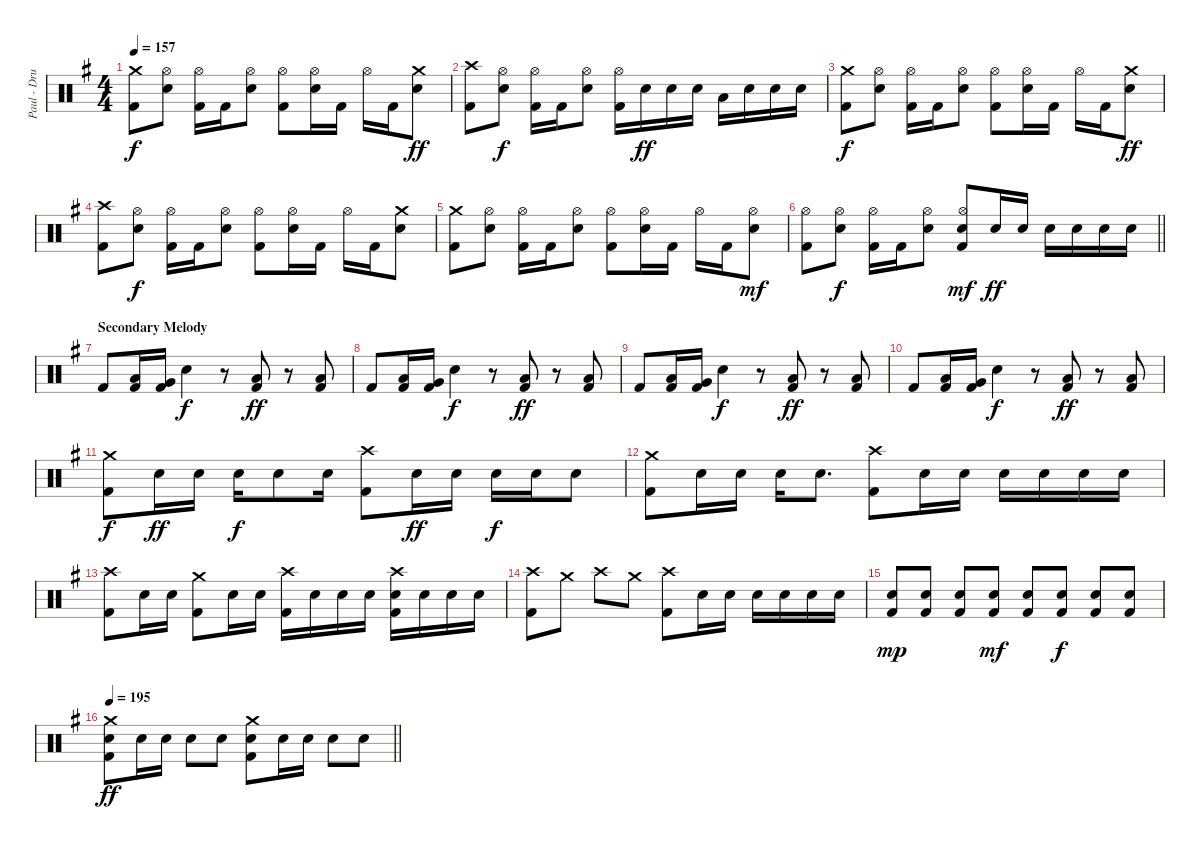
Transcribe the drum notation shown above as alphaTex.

\track ("Paul - Drums" "Paul - Dru") {instrument percussion}
\staff {score}
\articulation defaults
\ts (4 4)
\tempo 157
\clef neutral
\ks g
("Crash medium (hit)" "Kick (hit) 2").8{dy f} ("Hi-Hat (open)" "Electric Snare (hit)").8 ("Hi-Hat (open)" "Kick (hit) 2").16 "Kick (hit) 2".16 ("Hi-Hat (open)" "Electric Snare (hit)").8 ("Hi-Hat (open)" "Kick (hit) 2").8 ("Hi-Hat (open)" "Electric Snare (hit)").16 "Kick (hit) 2".16 "Hi-Hat (open)".16 "Kick (hit) 2".16 ("Crash medium (hit)" "Electric Snare (hit)").8{dy ff} |
("Crash high (hit)" "Kick (hit) 2").8 ("Hi-Hat (open)" "Electric Snare (hit)").8{dy f} ("Hi-Hat (open)" "Kick (hit) 2").16 "Kick (hit) 2".16 ("Hi-Hat (open)" "Electric Snare (hit)").8 ("Hi-Hat (open)" "Kick (hit) 2").16 "Electric Snare (hit)".16{dy ff} "Electric Snare (hit)".16 "Electric Snare (hit)".16 "Low Tom (hit)".16 "Electric Snare (hit)".16 "Electric Snare (hit)".16 "Electric Snare (hit)".16 |
("Crash medium (hit)" "Kick (hit) 2").8{dy f} ("Hi-Hat (open)" "Electric Snare (hit)").8 ("Hi-Hat (open)" "Kick (hit) 2").16 "Kick (hit) 2".16 ("Hi-Hat (open)" "Electric Snare (hit)").8 ("Hi-Hat (open)" "Kick (hit) 2").8 ("Hi-Hat (open)" "Electric Snare (hit)").16 "Kick (hit) 2".16 "Hi-Hat (open)".16 "Kick (hit) 2".16 ("Crash medium (hit)" "Electric Snare (hit)").8{dy ff} |
("Crash high (hit)" "Kick (hit) 2").8 ("Hi-Hat (open)" "Electric Snare (hit)").8{dy f} ("Hi-Hat (open)" "Kick (hit) 2").16 "Kick (hit) 2".16 ("Hi-Hat (open)" "Electric Snare (hit)").8 ("Hi-Hat (open)" "Kick (hit) 2").8 ("Hi-Hat (open)" "Electric Snare (hit)").16 "Kick (hit) 2".16 "Hi-Hat (open)".16 "Kick (hit) 2".16 ("Crash medium (hit)" "Electric Snare (hit)").8 |
("Crash medium (hit)" "Kick (hit) 2").8 ("Hi-Hat (open)" "Electric Snare (hit)").8 ("Hi-Hat (open)" "Kick (hit) 2").16 "Kick (hit) 2".16 ("Hi-Hat (open)" "Electric Snare (hit)").8 ("Hi-Hat (open)" "Kick (hit) 2").8 ("Hi-Hat (open)" "Electric Snare (hit)").16 "Kick (hit) 2".16 "Hi-Hat (open)".16 "Kick (hit) 2".16 ("Hi-Hat (open)" "Electric Snare (hit)").8{dy mf} |
\barLineRight lightlight
("Hi-Hat (open)" "Kick (hit) 2").8 ("Hi-Hat (open)" "Electric Snare (hit)").8{dy f} ("Hi-Hat (open)" "Kick (hit) 2").16 "Kick (hit) 2".16 ("Hi-Hat (open)" "Electric Snare (hit)").8 ("Hi-Hat (open)" "Electric Snare (hit)" "Kick (hit) 2").8{dy mf} "Electric Snare (hit)".16{dy ff} "Electric Snare (hit)".16 "Electric Snare (hit)".16 "Electric Snare (hit)".16 "Electric Snare (hit)".16 "Electric Snare (hit)".16 |
\section ("" "Secondary Melody")
"Kick (hit) 2".8 ("Low Tom (hit)" "Kick (hit) 2").16 ("Very Low Tom (hit)" "Kick (hit) 2").16 "Electric Snare (hit)".4{dy f} r.8 ("Low Tom (hit)" "Kick (hit) 2").8{dy ff} r.8 ("Low Tom (hit)" "Kick (hit) 2").8 |
"Kick (hit) 2".8 ("Low Tom (hit)" "Kick (hit) 2").16 ("Very Low Tom (hit)" "Kick (hit) 2").16 "Electric Snare (hit)".4{dy f} r.8 ("Low Tom (hit)" "Kick (hit) 2").8{dy ff} r.8 ("Low Tom (hit)" "Kick (hit) 2").8 |
"Kick (hit) 2".8 ("Low Tom (hit)" "Kick (hit) 2").16 ("Very Low Tom (hit)" "Kick (hit) 2").16 "Electric Snare (hit)".4{dy f} r.8 ("Low Tom (hit)" "Kick (hit) 2").8{dy ff} r.8 ("Low Tom (hit)" "Kick (hit) 2").8 |
"Kick (hit) 2".8 ("Low Tom (hit)" "Kick (hit) 2").16 ("Very Low Tom (hit)" "Kick (hit) 2").16 "Electric Snare (hit)".4{dy f} r.8 ("Low Tom (hit)" "Kick (hit) 2").8{dy ff} r.8 ("Low Tom (hit)" "Kick (hit) 2").8 |
("Crash medium (hit)" "Kick (hit) 2").8{dy f} "Electric Snare (hit)".16{dy ff} "Electric Snare (hit)".16 "Electric Snare (hit)".16{dy f} "Electric Snare (hit)".8 "Electric Snare (hit)".16 ("Crash high (hit)" "Kick (hit) 2").8 "Electric Snare (hit)".16{dy ff} "Electric Snare (hit)".16 "Electric Snare (hit)".16{dy f} "Electric Snare (hit)".16 "Electric Snare (hit)".8 |
("Crash medium (hit)" "Kick (hit) 2").8 "Electric Snare (hit)".16 "Electric Snare (hit)".16 "Electric Snare (hit)".16 "Electric Snare (hit)".8{d} ("Crash high (hit)" "Kick (hit) 2").8 "Electric Snare (hit)".16 "Electric Snare (hit)".16 "Electric Snare (hit)".16 "Electric Snare (hit)".16 "Electric Snare (hit)".16 "Electric Snare (hit)".16 |
("Crash high (hit)" "Kick (hit) 2").8 "Electric Snare (hit)".16 "Electric Snare (hit)".16 ("Crash medium (hit)" "Kick (hit) 2").8 "Electric Snare (hit)".16 "Electric Snare (hit)".16 ("Crash high (hit)" "Kick (hit) 2").16 "Electric Snare (hit)".16 "Electric Snare (hit)".16 "Electric Snare (hit)".16 ("Crash high (hit)" "Electric Snare (hit)" "Kick (hit) 2").16 "Electric Snare (hit)".16 "Electric Snare (hit)".16 "Electric Snare (hit)".16 |
("Crash high (hit)" "Kick (hit) 2").8 "Crash medium (hit)".8 "Crash high (hit)".8 "Crash medium (hit)".8 ("Crash high (hit)" "Kick (hit) 2").8 "Electric Snare (hit)".16 "Electric Snare (hit)".16 "Electric Snare (hit)".16 "Electric Snare (hit)".16 "Electric Snare (hit)".16 "Electric Snare (hit)".16 |
("Electric Snare (hit)" "Kick (hit) 2").8{dy mp} ("Electric Snare (hit)" "Kick (hit) 2").8 ("Electric Snare (hit)" "Kick (hit) 2").8 ("Electric Snare (hit)" "Kick (hit) 2").8{dy mf} ("Electric Snare (hit)" "Kick (hit) 2").8 ("Electric Snare (hit)" "Kick (hit) 2").8{dy f} ("Electric Snare (hit)" "Kick (hit) 2").8 ("Electric Snare (hit)" "Kick (hit) 2").8 |
\tempo 195
\barLineRight lightlight
("Crash medium (hit)" "Electric Snare (hit)" "Kick (hit) 2").8{dy ff} "Electric Snare (hit)".16 "Electric Snare (hit)".16 "Electric Snare (hit)".8 "Electric Snare (hit)".8 ("Crash medium (hit)" "Electric Snare (hit)" "Kick (hit) 2").8 "Electric Snare (hit)".16 "Electric Snare (hit)".16 "Electric Snare (hit)".8 "Electric Snare (hit)".8
